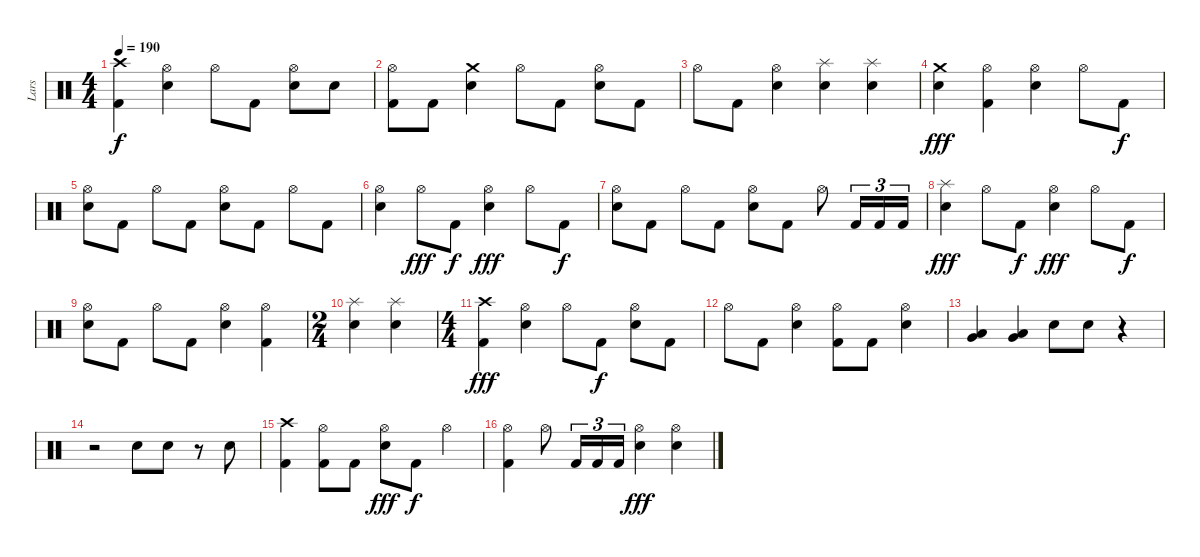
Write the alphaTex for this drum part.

\track ("Lars" "Lars") {instrument percussion}
\staff {score}
\articulation defaults
\ts (4 4)
\tempo 190
\clef neutral
\ks c
("Crash high (hit)" "Kick (hit) 2").4{dy f} ("Hi-Hat (open)" "Snare (hit) 2").4 "Hi-Hat (open)".8 "Kick (hit) 2".8 ("Hi-Hat (open)" "Snare (hit) 2").8 "Snare (hit) 2".8 |
("Hi-Hat (open)" "Kick (hit) 2").8 "Kick (hit) 2".8 ("Crash medium (hit)" "Snare (hit) 2").4 "Hi-Hat (open)".8 "Kick (hit) 2".8 ("Hi-Hat (open)" "Snare (hit) 2").8 "Kick (hit) 2".8 |
"Hi-Hat (open)".8 "Kick (hit) 2".8 ("Hi-Hat (open)" "Snare (hit) 2").4 ("Splash (hit)" "Snare (hit) 2").4 ("Splash (hit)" "Snare (hit) 2").4 |
("Crash medium (hit)" "Snare (hit) 2").4{dy fff} ("Hi-Hat (open)" "Kick (hit) 2").4 ("Hi-Hat (open)" "Snare (hit) 2").4 "Hi-Hat (open)".8 "Kick (hit) 2".8{dy f} |
("Hi-Hat (open)" "Snare (hit) 2").8 "Kick (hit) 2".8 "Hi-Hat (open)".8 "Kick (hit) 2".8 ("Hi-Hat (open)" "Snare (hit) 2").8 "Kick (hit) 2".8 "Hi-Hat (open)".8 "Kick (hit) 2".8 |
("Hi-Hat (open)" "Snare (hit) 2").4 "Hi-Hat (open)".8{dy fff} "Kick (hit) 2".8{dy f} ("Hi-Hat (open)" "Snare (hit) 2").4{dy fff} "Hi-Hat (open)".8 "Kick (hit) 2".8{dy f} |
("Hi-Hat (open)" "Snare (hit) 2").8 "Kick (hit) 2".8 "Hi-Hat (open)".8 "Kick (hit) 2".8 ("Hi-Hat (open)" "Snare (hit) 2").8 "Kick (hit) 2".8 "Hi-Hat (open)".8 "Kick (hit) 2".16{tu (3 2)} "Kick (hit) 2".16{tu (3 2)} "Kick (hit) 2".16{tu (3 2)} |
("Splash (hit)" "Snare (hit) 2").4{dy fff} "Hi-Hat (open)".8 "Kick (hit) 2".8{dy f} ("Hi-Hat (open)" "Snare (hit) 2").4{dy fff} "Hi-Hat (open)".8 "Kick (hit) 2".8{dy f} |
("Hi-Hat (open)" "Snare (hit) 2").8 "Kick (hit) 2".8 "Hi-Hat (open)".8 "Kick (hit) 2".8 ("Hi-Hat (open)" "Snare (hit) 2").4 ("Hi-Hat (open)" "Kick (hit) 2").4 |
\ts (2 4)
("Splash (hit)" "Snare (hit) 2").4 ("Splash (hit)" "Snare (hit) 2").4 |
\ts (4 4)
("Crash high (hit)" "Kick (hit) 2").4{dy fff} ("Hi-Hat (open)" "Snare (hit) 2").4 "Hi-Hat (open)".8 "Kick (hit) 2".8{dy f} ("Hi-Hat (open)" "Snare (hit) 2").8 "Kick (hit) 2".8 |
"Hi-Hat (open)".8 "Kick (hit) 2".8 ("Hi-Hat (open)" "Snare (hit) 2").4 ("Hi-Hat (open)" "Kick (hit) 2").8 "Kick (hit) 2".8 ("Hi-Hat (open)" "Snare (hit) 2").4 |
("Very Low Tom (hit)" "Low Floor Tom (hit)").4 ("Very Low Tom (hit)" "Low Floor Tom (hit)").4 "Snare (hit) 2".8 "Snare (hit) 2".8 r.4 |
r.2 "Snare (hit) 2".8 "Snare (hit) 2".8 r.8 "Snare (hit) 2".8 |
("Crash high (hit)" "Kick (hit) 2").4 ("Hi-Hat (open)" "Kick (hit) 2").8 "Kick (hit) 2".8 ("Hi-Hat (open)" "Snare (hit) 2").8{dy fff} "Kick (hit) 2".8{dy f} "Hi-Hat (open)".4 |
("Hi-Hat (open)" "Kick (hit) 2").4 "Hi-Hat (open)".8 "Kick (hit) 2".16{tu (3 2)} "Kick (hit) 2".16{tu (3 2)} "Kick (hit) 2".16{tu (3 2)} ("Hi-Hat (open)" "Snare (hit) 2").4{dy fff} ("Hi-Hat (open)" "Snare (hit) 2").4
